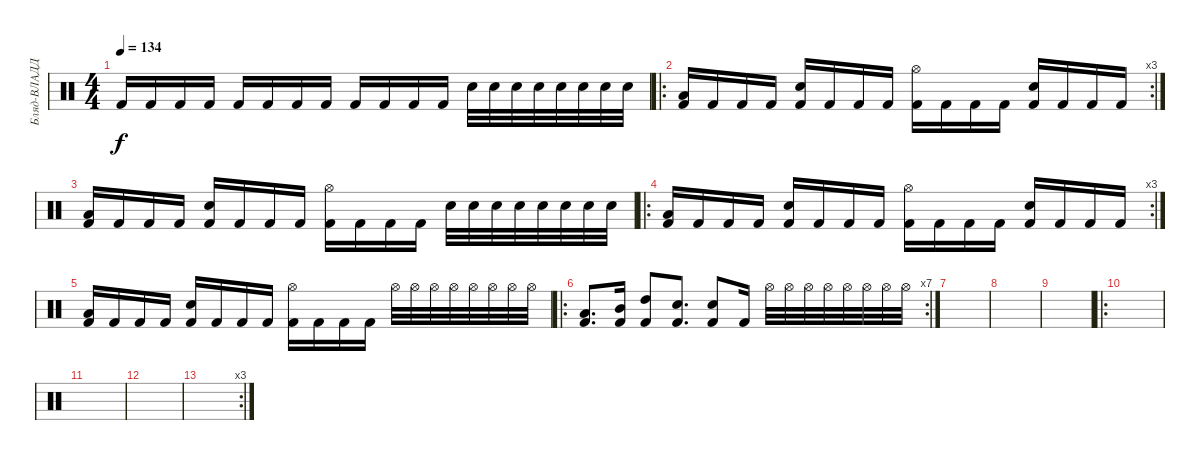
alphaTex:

\track ("Бляд-ВЛАДД" "Бляд-ВЛАДД") {instrument percussion}
\staff
\articulation defaults
\ts (4 4)
\tempo 134
\clef neutral
\ks c "Kick (hit) 2".16{dy f} "Kick (hit) 2".16 "Kick (hit) 2".16 "Kick (hit) 2".16 "Kick (hit) 2".16 "Kick (hit) 2".16 "Kick (hit) 2".16 "Kick (hit) 2".16 "Kick (hit) 2".16 "Kick (hit) 2".16 "Kick (hit) 2".16 "Kick (hit) 2".16 "Snare (hit) 2".32 "Snare (hit) 2".32 "Snare (hit) 2".32 "Snare (hit) 2".32 "Snare (hit) 2".32 "Snare (hit) 2".32 "Snare (hit) 2".32 "Snare (hit) 2".32
|
\ro
\rc 3
("Kick (hit) 2" "Low Floor Tom (hit)").16 "Kick (hit) 2".16 "Kick (hit) 2".16 "Kick (hit) 2".16 ("Kick (hit) 2" "Electric Snare (hit)").16 "Kick (hit) 2".16 "Kick (hit) 2".16 "Kick (hit) 2".16 ("Kick (hit) 2" "Hi-Hat (open)").16 "Kick (hit) 2".16 "Kick (hit) 2".16 "Kick (hit) 2".16 ("Kick (hit) 2" "Snare (hit) 2").16 "Kick (hit) 2".16 "Kick (hit) 2".16 "Kick (hit) 2".16 |
("Kick (hit) 2" "Low Floor Tom (hit)").16 "Kick (hit) 2".16 "Kick (hit) 2".16 "Kick (hit) 2".16 ("Kick (hit) 2" "Electric Snare (hit)").16 "Kick (hit) 2".16 "Kick (hit) 2".16 "Kick (hit) 2".16 ("Kick (hit) 2" "Hi-Hat (open)").16 "Kick (hit) 2".16 "Kick (hit) 2".16 "Kick (hit) 2".16 "Snare (hit) 2".32 "Snare (hit) 2".32 "Snare (hit) 2".32 "Snare (hit) 2".32 "Snare (hit) 2".32 "Snare (hit) 2".32 "Snare (hit) 2".32 "Snare (hit) 2".32 |
\ro
\rc 3
("Kick (hit) 2" "Low Floor Tom (hit)").16 "Kick (hit) 2".16 "Kick (hit) 2".16 "Kick (hit) 2".16 ("Kick (hit) 2" "Electric Snare (hit)").16 "Kick (hit) 2".16 "Kick (hit) 2".16 "Kick (hit) 2".16 ("Kick (hit) 2" "Hi-Hat (open)").16 "Kick (hit) 2".16 "Kick (hit) 2".16 "Kick (hit) 2".16 ("Kick (hit) 2" "Snare (hit) 2").16 "Kick (hit) 2".16 "Kick (hit) 2".16 "Kick (hit) 2".16 |
("Kick (hit) 2" "Low Floor Tom (hit)").16 "Kick (hit) 2".16 "Kick (hit) 2".16 "Kick (hit) 2".16 ("Kick (hit) 2" "Electric Snare (hit)").16 "Kick (hit) 2".16 "Kick (hit) 2".16 "Kick (hit) 2".16 ("Kick (hit) 2" "Hi-Hat (open)").16 "Kick (hit) 2".16 "Kick (hit) 2".16 "Kick (hit) 2".16 "Hi-Hat (open)".32 "Hi-Hat (open)".32 "Hi-Hat (open)".32 "Hi-Hat (open)".32 "Hi-Hat (open)".32 "Hi-Hat (open)".32 "Hi-Hat (open)".32 "Hi-Hat (open)".32 |
\ro
\rc 7
("Low Floor Tom (hit)" "Kick (hit) 2").8{d} ("Mid Tom (hit)" "Kick (hit) 2").16 ("High Tom (hit)" "Kick (hit) 2").8 ("Electric Snare (hit)" "Kick (hit) 2").8{d} ("Electric Snare (hit)" "Kick (hit) 2").8 "Kick (hit) 2".16 "Hi-Hat (open)".32 "Hi-Hat (open)".32 "Hi-Hat (open)".32 "Hi-Hat (open)".32 "Hi-Hat (open)".32 "Hi-Hat (open)".32 "Hi-Hat (open)".32 "Hi-Hat (open)".32 |
|
|
|
\ro
|
|
|
\rc 3
